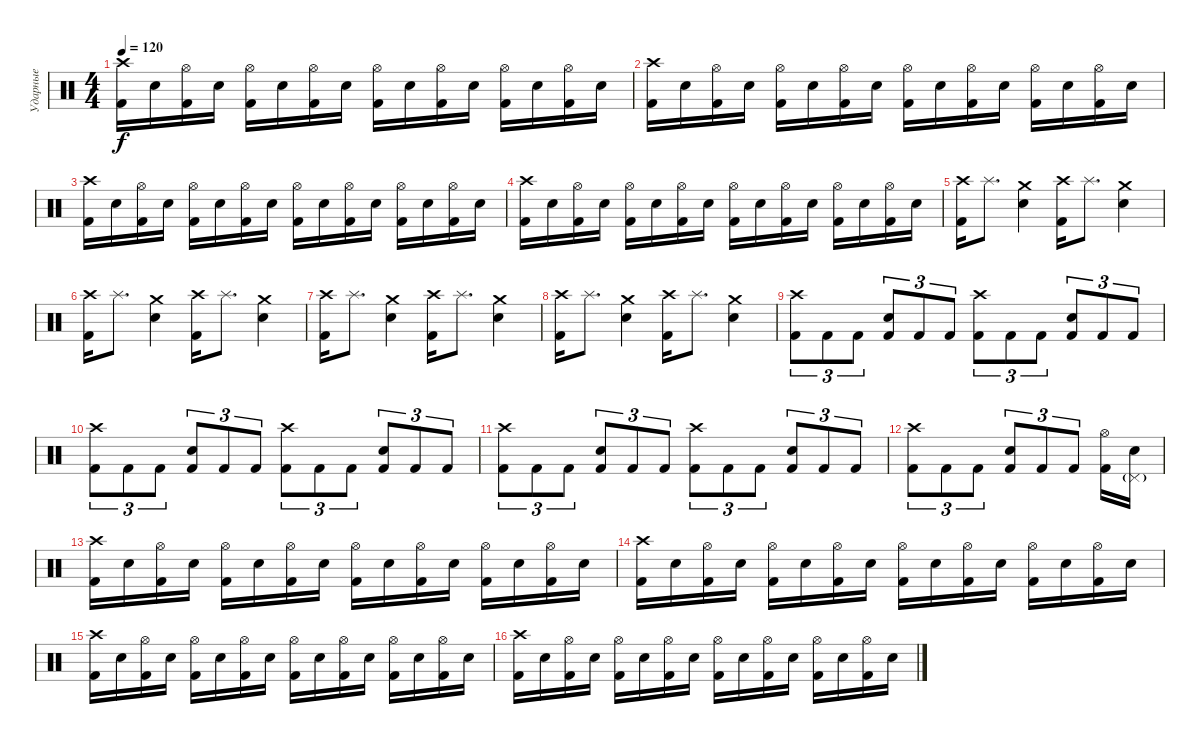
\track ("Ударные" "Ударные") {instrument percussion}
\staff {score}
\articulation defaults
\ts (4 4)
\tempo 120
\clef neutral
\ks c
("Kick (hit) 2" "Crash high (hit)").16{dy f} "Electric Snare (hit)".16 ("Kick (hit) 2" "Hi-Hat (open)").16 "Electric Snare (hit)".16 ("Kick (hit) 2" "Hi-Hat (open)").16 "Electric Snare (hit)".16 ("Kick (hit) 2" "Hi-Hat (open)").16 "Electric Snare (hit)".16 ("Kick (hit) 2" "Hi-Hat (open)").16 "Electric Snare (hit)".16 ("Kick (hit) 2" "Hi-Hat (open)").16 "Electric Snare (hit)".16 ("Kick (hit) 2" "Hi-Hat (open)").16 "Electric Snare (hit)".16 ("Kick (hit) 2" "Hi-Hat (open)").16 "Electric Snare (hit)".16 |
("Kick (hit) 2" "Crash high (hit)").16 "Electric Snare (hit)".16 ("Kick (hit) 2" "Hi-Hat (open)").16 "Electric Snare (hit)".16 ("Kick (hit) 2" "Hi-Hat (open)").16 "Electric Snare (hit)".16 ("Kick (hit) 2" "Hi-Hat (open)").16 "Electric Snare (hit)".16 ("Kick (hit) 2" "Hi-Hat (open)").16 "Electric Snare (hit)".16 ("Kick (hit) 2" "Hi-Hat (open)").16 "Electric Snare (hit)".16 ("Kick (hit) 2" "Hi-Hat (open)").16 "Electric Snare (hit)".16 ("Kick (hit) 2" "Hi-Hat (open)").16 "Electric Snare (hit)".16 |
("Kick (hit) 2" "Crash high (hit)").16 "Electric Snare (hit)".16 ("Kick (hit) 2" "Hi-Hat (open)").16 "Electric Snare (hit)".16 ("Kick (hit) 2" "Hi-Hat (open)").16 "Electric Snare (hit)".16 ("Kick (hit) 2" "Hi-Hat (open)").16 "Electric Snare (hit)".16 ("Kick (hit) 2" "Hi-Hat (open)").16 "Electric Snare (hit)".16 ("Kick (hit) 2" "Hi-Hat (open)").16 "Electric Snare (hit)".16 ("Kick (hit) 2" "Hi-Hat (open)").16 "Electric Snare (hit)".16 ("Kick (hit) 2" "Hi-Hat (open)").16 "Electric Snare (hit)".16 |
("Kick (hit) 2" "Crash high (hit)").16 "Electric Snare (hit)".16 ("Kick (hit) 2" "Hi-Hat (open)").16 "Electric Snare (hit)".16 ("Kick (hit) 2" "Hi-Hat (open)").16 "Electric Snare (hit)".16 ("Kick (hit) 2" "Hi-Hat (open)").16 "Electric Snare (hit)".16 ("Kick (hit) 2" "Hi-Hat (open)").16 "Electric Snare (hit)".16 ("Kick (hit) 2" "Hi-Hat (open)").16 "Electric Snare (hit)".16 ("Kick (hit) 2" "Hi-Hat (open)").16 "Electric Snare (hit)".16 ("Kick (hit) 2" "Hi-Hat (open)").16 "Electric Snare (hit)".16 |
("Kick (hit) 2" "Crash high (hit)").16 "Splash (hit)".8{d} ("Electric Snare (hit)" "Crash medium (hit)").4 ("Kick (hit) 2" "Crash high (hit)").16 "Splash (hit)".8{d} ("Electric Snare (hit)" "Crash medium (hit)").4 |
("Kick (hit) 2" "Crash high (hit)").16 "Splash (hit)".8{d} ("Electric Snare (hit)" "Crash medium (hit)").4 ("Kick (hit) 2" "Crash high (hit)").16 "Splash (hit)".8{d} ("Electric Snare (hit)" "Crash medium (hit)").4 |
("Kick (hit) 2" "Crash high (hit)").16 "Splash (hit)".8{d} ("Electric Snare (hit)" "Crash medium (hit)").4 ("Kick (hit) 2" "Crash high (hit)").16 "Splash (hit)".8{d} ("Electric Snare (hit)" "Crash medium (hit)").4 |
("Kick (hit) 2" "Crash high (hit)").16 "Splash (hit)".8{d} ("Electric Snare (hit)" "Crash medium (hit)").4 ("Kick (hit) 2" "Crash high (hit)").16 "Splash (hit)".8{d} ("Electric Snare (hit)" "Crash medium (hit)").4 |
("Kick (hit) 2" "Crash high (hit)").8{tu (3 2)} "Kick (hit) 2".8{tu (3 2)} "Kick (hit) 2".8{tu (3 2)} ("Kick (hit) 2" "Electric Snare (hit)").8{tu (3 2)} "Kick (hit) 2".8{tu (3 2)} "Kick (hit) 2".8{tu (3 2)} ("Kick (hit) 2" "Crash high (hit)").8{tu (3 2)} "Kick (hit) 2".8{tu (3 2)} "Kick (hit) 2".8{tu (3 2)} ("Kick (hit) 2" "Electric Snare (hit)").8{tu (3 2)} "Kick (hit) 2".8{tu (3 2)} "Kick (hit) 2".8{tu (3 2)} |
("Kick (hit) 2" "Crash high (hit)").8{tu (3 2)} "Kick (hit) 2".8{tu (3 2)} "Kick (hit) 2".8{tu (3 2)} ("Kick (hit) 2" "Electric Snare (hit)").8{tu (3 2)} "Kick (hit) 2".8{tu (3 2)} "Kick (hit) 2".8{tu (3 2)} ("Kick (hit) 2" "Crash high (hit)").8{tu (3 2)} "Kick (hit) 2".8{tu (3 2)} "Kick (hit) 2".8{tu (3 2)} ("Kick (hit) 2" "Electric Snare (hit)").8{tu (3 2)} "Kick (hit) 2".8{tu (3 2)} "Kick (hit) 2".8{tu (3 2)} |
("Kick (hit) 2" "Crash high (hit)").8{tu (3 2)} "Kick (hit) 2".8{tu (3 2)} "Kick (hit) 2".8{tu (3 2)} ("Kick (hit) 2" "Electric Snare (hit)").8{tu (3 2)} "Kick (hit) 2".8{tu (3 2)} "Kick (hit) 2".8{tu (3 2)} ("Kick (hit) 2" "Crash high (hit)").8{tu (3 2)} "Kick (hit) 2".8{tu (3 2)} "Kick (hit) 2".8{tu (3 2)} ("Kick (hit) 2" "Electric Snare (hit)").8{tu (3 2)} "Kick (hit) 2".8{tu (3 2)} "Kick (hit) 2".8{tu (3 2)} |
("Kick (hit) 2" "Crash high (hit)").8{tu (3 2)} "Kick (hit) 2".8{tu (3 2)} "Kick (hit) 2".8{tu (3 2)} ("Kick (hit) 2" "Electric Snare (hit)").8{tu (3 2)} "Kick (hit) 2".8{tu (3 2)} "Kick (hit) 2".8{tu (3 2)} ("Kick (hit) 2" "Hi-Hat (open)").16 ("Electric Snare (hit)" "Pedal Hi-Hat (hit)"{g}).16 |
("Kick (hit) 2" "Crash high (hit)").16 "Electric Snare (hit)".16 ("Kick (hit) 2" "Hi-Hat (open)").16 "Electric Snare (hit)".16 ("Kick (hit) 2" "Hi-Hat (open)").16 "Electric Snare (hit)".16 ("Kick (hit) 2" "Hi-Hat (open)").16 "Electric Snare (hit)".16 ("Kick (hit) 2" "Hi-Hat (open)").16 "Electric Snare (hit)".16 ("Kick (hit) 2" "Hi-Hat (open)").16 "Electric Snare (hit)".16 ("Kick (hit) 2" "Hi-Hat (open)").16 "Electric Snare (hit)".16 ("Kick (hit) 2" "Hi-Hat (open)").16 "Electric Snare (hit)".16 |
("Kick (hit) 2" "Crash high (hit)").16 "Electric Snare (hit)".16 ("Kick (hit) 2" "Hi-Hat (open)").16 "Electric Snare (hit)".16 ("Kick (hit) 2" "Hi-Hat (open)").16 "Electric Snare (hit)".16 ("Kick (hit) 2" "Hi-Hat (open)").16 "Electric Snare (hit)".16 ("Kick (hit) 2" "Hi-Hat (open)").16 "Electric Snare (hit)".16 ("Kick (hit) 2" "Hi-Hat (open)").16 "Electric Snare (hit)".16 ("Kick (hit) 2" "Hi-Hat (open)").16 "Electric Snare (hit)".16 ("Kick (hit) 2" "Hi-Hat (open)").16 "Electric Snare (hit)".16 |
("Kick (hit) 2" "Crash high (hit)").16 "Electric Snare (hit)".16 ("Kick (hit) 2" "Hi-Hat (open)").16 "Electric Snare (hit)".16 ("Kick (hit) 2" "Hi-Hat (open)").16 "Electric Snare (hit)".16 ("Kick (hit) 2" "Hi-Hat (open)").16 "Electric Snare (hit)".16 ("Kick (hit) 2" "Hi-Hat (open)").16 "Electric Snare (hit)".16 ("Kick (hit) 2" "Hi-Hat (open)").16 "Electric Snare (hit)".16 ("Kick (hit) 2" "Hi-Hat (open)").16 "Electric Snare (hit)".16 ("Kick (hit) 2" "Hi-Hat (open)").16 "Electric Snare (hit)".16 |
("Kick (hit) 2" "Crash high (hit)").16 "Electric Snare (hit)".16 ("Kick (hit) 2" "Hi-Hat (open)").16 "Electric Snare (hit)".16 ("Kick (hit) 2" "Hi-Hat (open)").16 "Electric Snare (hit)".16 ("Kick (hit) 2" "Hi-Hat (open)").16 "Electric Snare (hit)".16 ("Kick (hit) 2" "Hi-Hat (open)").16 "Electric Snare (hit)".16 ("Kick (hit) 2" "Hi-Hat (open)").16 "Electric Snare (hit)".16 ("Kick (hit) 2" "Hi-Hat (open)").16 "Electric Snare (hit)".16 ("Kick (hit) 2" "Hi-Hat (open)").16 "Electric Snare (hit)".16
